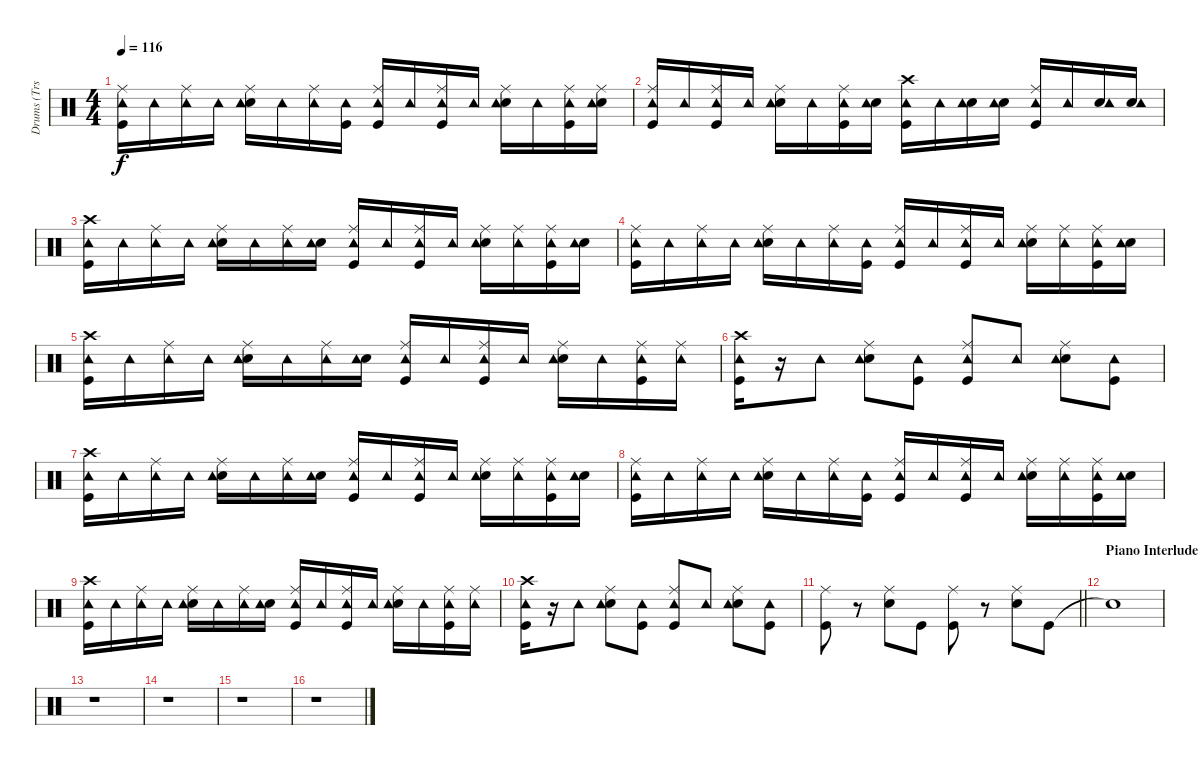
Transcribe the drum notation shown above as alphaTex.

\track ("Drums (Trs. 7-8A, 10A/7-8B, 10B, 12-13B)" "Drums (Trs") {mute instrument percussion}
\staff {score}
\articulation defaults
\ts (4 4)
\tempo 116
\clef neutral
\ks c
("Kick (hit)" "Ride (middle)" "Tambourine (hit)").16{dy f} "Tambourine (hit)".16 ("Ride (middle)" "Tambourine (hit)").16 "Tambourine (hit)".16 ("Ride (middle)" "Electric Snare (hit)" "Tambourine (hit)").16 "Tambourine (hit)".16 ("Ride (middle)" "Tambourine (hit)").16 ("Kick (hit)" "Tambourine (hit)").16 ("Ride (middle)" "Kick (hit)" "Tambourine (hit)").16 "Tambourine (hit)".16 ("Kick (hit)" "Ride (middle)" "Tambourine (hit)").16 "Tambourine (hit)".16 ("Ride (middle)" "Electric Snare (hit)" "Tambourine (hit)").16 "Tambourine (hit)".16 ("Kick (hit)" "Ride (middle)" "Tambourine (hit)").16 ("Electric Snare (hit)" "Ride (middle)" "Tambourine (hit)").16 |
("Ride (middle)" "Kick (hit)" "Tambourine (hit)").16 "Tambourine (hit)".16 ("Ride (middle)" "Kick (hit)" "Tambourine (hit)").16 "Tambourine (hit)".16 ("Electric Snare (hit)" "Ride (middle)" "Tambourine (hit)").16 "Tambourine (hit)".16 ("Ride (middle)" "Kick (hit)" "Tambourine (hit)").16 ("Electric Snare (hit)" "Tambourine (hit)").16 ("Crash high (hit)" "Kick (hit)" "Tambourine (hit)").16 "Tambourine (hit)".16 ("Electric Snare (hit)" "Tambourine (hit)").16 ("Electric Snare (hit)" "Tambourine (hit)").16 ("Ride (middle)" "Kick (hit)" "Tambourine (hit)").16 "Tambourine (hit)".16 ("Electric Snare (hit)" "Tambourine (hit)").16 ("Electric Snare (hit)" "Tambourine (hit)").16 |
("Kick (hit)" "Crash high (hit)" "Tambourine (hit)").16 "Tambourine (hit)".16 ("Ride (middle)" "Tambourine (hit)").16 "Tambourine (hit)".16 ("Electric Snare (hit)" "Ride (middle)" "Tambourine (hit)").16 "Tambourine (hit)".16 ("Ride (middle)" "Tambourine (hit)").16 ("Electric Snare (hit)" "Tambourine (hit)").16 ("Ride (middle)" "Kick (hit)" "Tambourine (hit)").16 "Tambourine (hit)".16 ("Ride (middle)" "Kick (hit)" "Tambourine (hit)").16 "Tambourine (hit)".16 ("Electric Snare (hit)" "Ride (middle)" "Tambourine (hit)").16 ("Ride (middle)" "Tambourine (hit)").16 ("Kick (hit)" "Ride (middle)" "Tambourine (hit)").16 ("Electric Snare (hit)" "Tambourine (hit)").16 |
("Kick (hit)" "Ride (middle)" "Tambourine (hit)").16 "Tambourine (hit)".16 ("Ride (middle)" "Tambourine (hit)").16 "Tambourine (hit)".16 ("Ride (middle)" "Electric Snare (hit)" "Tambourine (hit)").16 "Tambourine (hit)".16 ("Ride (middle)" "Tambourine (hit)").16 ("Kick (hit)" "Tambourine (hit)").16 ("Ride (middle)" "Kick (hit)" "Tambourine (hit)").16 "Tambourine (hit)".16 ("Kick (hit)" "Ride (middle)" "Tambourine (hit)").16 "Tambourine (hit)".16 ("Ride (middle)" "Electric Snare (hit)" "Tambourine (hit)").16 ("Ride (middle)" "Tambourine (hit)").16 ("Ride (middle)" "Kick (hit)" "Tambourine (hit)").16 ("Electric Snare (hit)" "Tambourine (hit)").16 |
("Kick (hit)" "Crash high (hit)" "Tambourine (hit)").16 "Tambourine (hit)".16 ("Ride (middle)" "Tambourine (hit)").16 "Tambourine (hit)".16 ("Ride (middle)" "Electric Snare (hit)" "Tambourine (hit)").16 "Tambourine (hit)".16 ("Ride (middle)" "Tambourine (hit)").16 ("Electric Snare (hit)" "Tambourine (hit)").16 ("Kick (hit)" "Ride (middle)" "Tambourine (hit)").16 "Tambourine (hit)".16 ("Kick (hit)" "Ride (middle)" "Tambourine (hit)").16 "Tambourine (hit)".16 ("Electric Snare (hit)" "Ride (middle)" "Tambourine (hit)").16 "Tambourine (hit)".16 ("Kick (hit)" "Ride (middle)" "Tambourine (hit)").16 ("Ride (middle)" "Tambourine (hit)").16 |
("Crash high (hit)" "Kick (hit)" "Tambourine (hit)").16 r.16 "Tambourine (hit)".8 ("Electric Snare (hit)" "Ride (middle)" "Tambourine (hit)").8 ("Kick (hit)" "Tambourine (hit)").8 ("Kick (hit)" "Ride (middle)" "Tambourine (hit)").8 "Tambourine (hit)".8 ("Ride (middle)" "Electric Snare (hit)" "Tambourine (hit)").8 ("Kick (hit)" "Tambourine (hit)").8 |
("Kick (hit)" "Crash high (hit)" "Tambourine (hit)").16 "Tambourine (hit)".16 ("Ride (middle)" "Tambourine (hit)").16 "Tambourine (hit)".16 ("Electric Snare (hit)" "Ride (middle)" "Tambourine (hit)").16 "Tambourine (hit)".16 ("Ride (middle)" "Tambourine (hit)").16 ("Electric Snare (hit)" "Tambourine (hit)").16 ("Ride (middle)" "Kick (hit)" "Tambourine (hit)").16 "Tambourine (hit)".16 ("Ride (middle)" "Kick (hit)" "Tambourine (hit)").16 "Tambourine (hit)".16 ("Electric Snare (hit)" "Ride (middle)" "Tambourine (hit)").16 ("Ride (middle)" "Tambourine (hit)").16 ("Kick (hit)" "Ride (middle)" "Tambourine (hit)").16 ("Electric Snare (hit)" "Tambourine (hit)").16 |
("Kick (hit)" "Ride (middle)" "Tambourine (hit)").16 "Tambourine (hit)".16 ("Ride (middle)" "Tambourine (hit)").16 "Tambourine (hit)".16 ("Ride (middle)" "Electric Snare (hit)" "Tambourine (hit)").16 "Tambourine (hit)".16 ("Ride (middle)" "Tambourine (hit)").16 ("Kick (hit)" "Tambourine (hit)").16 ("Ride (middle)" "Kick (hit)" "Tambourine (hit)").16 "Tambourine (hit)".16 ("Kick (hit)" "Ride (middle)" "Tambourine (hit)").16 "Tambourine (hit)".16 ("Ride (middle)" "Electric Snare (hit)" "Tambourine (hit)").16 ("Ride (middle)" "Tambourine (hit)").16 ("Ride (middle)" "Kick (hit)" "Tambourine (hit)").16 ("Electric Snare (hit)" "Tambourine (hit)").16 |
("Kick (hit)" "Crash high (hit)" "Tambourine (hit)").16 "Tambourine (hit)".16 ("Ride (middle)" "Tambourine (hit)").16 "Tambourine (hit)".16 ("Ride (middle)" "Electric Snare (hit)" "Tambourine (hit)").16 "Tambourine (hit)".16 ("Ride (middle)" "Tambourine (hit)").16 ("Electric Snare (hit)" "Tambourine (hit)").16 ("Kick (hit)" "Ride (middle)" "Tambourine (hit)").16 "Tambourine (hit)".16 ("Kick (hit)" "Ride (middle)" "Tambourine (hit)").16 "Tambourine (hit)".16 ("Electric Snare (hit)" "Ride (middle)" "Tambourine (hit)").16 "Tambourine (hit)".16 ("Kick (hit)" "Ride (middle)" "Tambourine (hit)").16 ("Ride (middle)" "Tambourine (hit)").16 |
("Crash high (hit)" "Kick (hit)" "Tambourine (hit)").16 r.16 "Tambourine (hit)".8 ("Electric Snare (hit)" "Ride (middle)" "Tambourine (hit)").8 ("Kick (hit)" "Tambourine (hit)").8 ("Kick (hit)" "Ride (middle)" "Tambourine (hit)").8 "Tambourine (hit)".8 ("Ride (middle)" "Electric Snare (hit)" "Tambourine (hit)").8 ("Kick (hit)" "Tambourine (hit)").8 |
\barLineRight lightlight
("Kick (hit)" "Ride (middle)").8 r.8 ("Electric Snare (hit)" "Ride (middle)").8 "Kick (hit)".8 ("Kick (hit)" "Ride (middle)").8 r.8 ("Ride (middle)" "Electric Snare (hit)").8 "Kick (hit)".8 |
\section ("" "Piano Interlude")
"Snare (hit)"{t}.1 |
r.1 |
r.1 |
r.1 |
r.1
